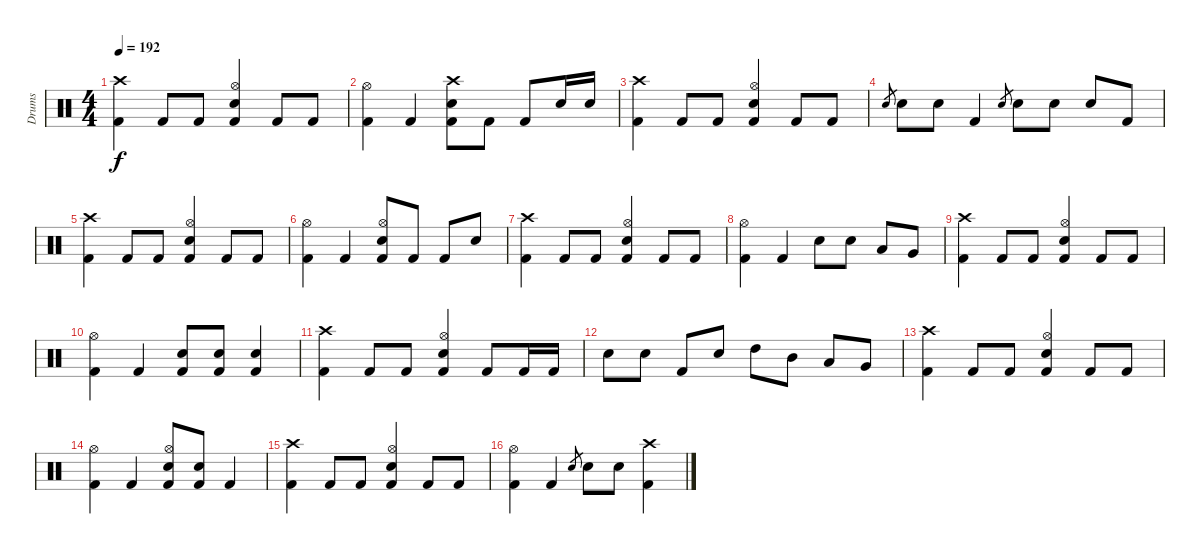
\track ("Drums" "Drums") {instrument percussion}
\staff {score}
\articulation defaults
\ts (4 4)
\tempo 192
\clef neutral
\ks c
("Crash high (hit)" "Kick (hit) 2").4{dy f} "Kick (hit) 2".8 "Kick (hit) 2".8 ("Hi-Hat (open)" "Snare (hit) 2" "Kick (hit) 2").4 "Kick (hit) 2".8 "Kick (hit) 2".8 |
("Hi-Hat (open)" "Kick (hit) 2").4 "Kick (hit) 2".4 ("Crash high (hit)" "Snare (hit) 2" "Kick (hit) 2").8 "Kick (hit) 2".8 "Kick (hit) 2".8 "Snare (hit) 2".16 "Snare (hit) 2".16 |
("Crash high (hit)" "Kick (hit) 2").4 "Kick (hit) 2".8 "Kick (hit) 2".8 ("Hi-Hat (open)" "Snare (hit) 2" "Kick (hit) 2").4 "Kick (hit) 2".8 "Kick (hit) 2".8 |
"Snare (hit) 2".8{gr} "Snare (hit) 2".8 "Snare (hit) 2".8 "Kick (hit) 2".4 "Snare (hit) 2".8{gr} "Snare (hit) 2".8 "Snare (hit) 2".8 "Snare (hit) 2".8 "Kick (hit) 2".8 |
("Crash high (hit)" "Kick (hit) 2").4 "Kick (hit) 2".8 "Kick (hit) 2".8 ("Hi-Hat (open)" "Snare (hit) 2" "Kick (hit) 2").4 "Kick (hit) 2".8 "Kick (hit) 2".8 |
("Hi-Hat (open)" "Kick (hit) 2").4 "Kick (hit) 2".4 ("Hi-Hat (open)" "Snare (hit) 2" "Kick (hit) 2").8 "Kick (hit) 2".8 "Kick (hit) 2".8 "Snare (hit) 2".8 |
("Crash high (hit)" "Kick (hit) 2").4 "Kick (hit) 2".8 "Kick (hit) 2".8 ("Hi-Hat (open)" "Snare (hit) 2" "Kick (hit) 2").4 "Kick (hit) 2".8 "Kick (hit) 2".8 |
("Hi-Hat (open)" "Kick (hit) 2").4 "Kick (hit) 2".4 "Snare (hit) 2".8 "Snare (hit) 2".8 "Low Tom (hit)".8 "Very Low Tom (hit)".8 |
("Crash high (hit)" "Kick (hit) 2").4 "Kick (hit) 2".8 "Kick (hit) 2".8 ("Hi-Hat (open)" "Snare (hit) 2" "Kick (hit) 2").4 "Kick (hit) 2".8 "Kick (hit) 2".8 |
("Hi-Hat (open)" "Kick (hit) 2").4 "Kick (hit) 2".4 ("Snare (hit) 2" "Kick (hit) 2").8 ("Snare (hit) 2" "Kick (hit) 2").8 ("Snare (hit) 2" "Kick (hit) 2").4 |
("Crash high (hit)" "Kick (hit) 2").4 "Kick (hit) 2".8 "Kick (hit) 2".8 ("Hi-Hat (open)" "Snare (hit) 2" "Kick (hit) 2").4 "Kick (hit) 2".8 "Kick (hit) 2".16 "Kick (hit) 2".16 |
"Snare (hit) 2".8 "Snare (hit) 2".8 "Kick (hit) 2".8 "Snare (hit) 2".8 "High Tom (hit)".8 "Mid Tom (hit)".8 "Low Tom (hit)".8 "Very Low Tom (hit)".8 |
("Crash high (hit)" "Kick (hit) 2").4 "Kick (hit) 2".8 "Kick (hit) 2".8 ("Hi-Hat (open)" "Snare (hit) 2" "Kick (hit) 2").4 "Kick (hit) 2".8 "Kick (hit) 2".8 |
("Hi-Hat (open)" "Kick (hit) 2").4 "Kick (hit) 2".4 ("Hi-Hat (open)" "Snare (hit) 2" "Kick (hit) 2").8 ("Snare (hit) 2" "Kick (hit) 2").8 "Kick (hit) 2".4 |
("Crash high (hit)" "Kick (hit) 2").4 "Kick (hit) 2".8 "Kick (hit) 2".8 ("Hi-Hat (open)" "Snare (hit) 2" "Kick (hit) 2").4 "Kick (hit) 2".8 "Kick (hit) 2".8 |
("Hi-Hat (open)" "Kick (hit) 2").4 "Kick (hit) 2".4 "Snare (hit) 2".8{gr} "Snare (hit) 2".8 "Snare (hit) 2".8 ("Crash high (hit)" "Kick (hit) 2").4
